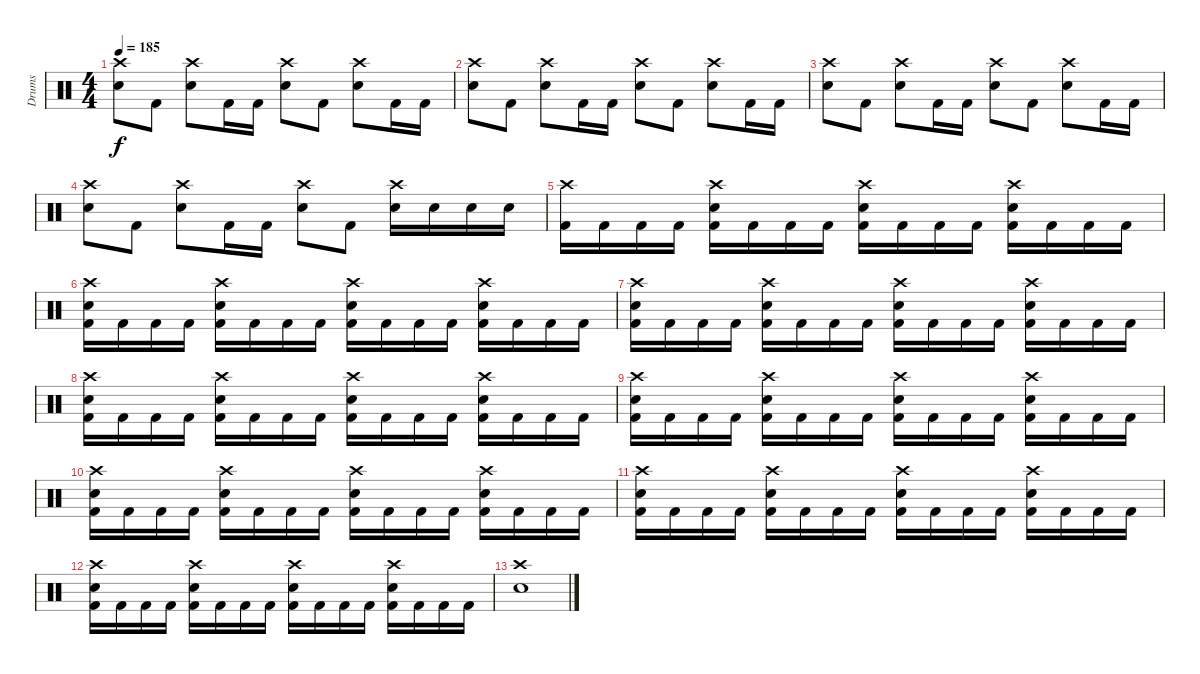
\track ("Drums" "Drums") {instrument percussion}
\staff {score}
\articulation defaults
\ts (4 4)
\tempo 185
\clef neutral
\ks c
("Crash high (hit)" "Snare (hit) 2").8{dy f} "Kick (hit) 2".8 ("Crash high (hit)" "Snare (hit) 2").8 "Kick (hit) 2".16 "Kick (hit) 2".16 ("Crash high (hit)" "Snare (hit) 2").8 "Kick (hit) 2".8 ("Crash high (hit)" "Snare (hit) 2").8 "Kick (hit) 2".16 "Kick (hit) 2".16 |
("Crash high (hit)" "Snare (hit) 2").8 "Kick (hit) 2".8 ("Crash high (hit)" "Snare (hit) 2").8 "Kick (hit) 2".16 "Kick (hit) 2".16 ("Crash high (hit)" "Snare (hit) 2").8 "Kick (hit) 2".8 ("Crash high (hit)" "Snare (hit) 2").8 "Kick (hit) 2".16 "Kick (hit) 2".16 |
("Crash high (hit)" "Snare (hit) 2").8 "Kick (hit) 2".8 ("Crash high (hit)" "Snare (hit) 2").8 "Kick (hit) 2".16 "Kick (hit) 2".16 ("Crash high (hit)" "Snare (hit) 2").8 "Kick (hit) 2".8 ("Crash high (hit)" "Snare (hit) 2").8 "Kick (hit) 2".16 "Kick (hit) 2".16 |
("Crash high (hit)" "Snare (hit) 2").8 "Kick (hit) 2".8 ("Crash high (hit)" "Snare (hit) 2").8 "Kick (hit) 2".16 "Kick (hit) 2".16 ("Crash high (hit)" "Snare (hit) 2").8 "Kick (hit) 2".8 ("Crash high (hit)" "Snare (hit) 2").16 "Snare (hit) 2".16 "Snare (hit) 2".16 "Snare (hit) 2".16 |
("Crash high (hit)" "Kick (hit) 2").16 "Kick (hit) 2".16 "Kick (hit) 2".16 "Kick (hit) 2".16 ("Crash high (hit)" "Snare (hit) 2" "Kick (hit) 2").16 "Kick (hit) 2".16 "Kick (hit) 2".16 "Kick (hit) 2".16 ("Crash high (hit)" "Snare (hit) 2" "Kick (hit) 2").16 "Kick (hit) 2".16 "Kick (hit) 2".16 "Kick (hit) 2".16 ("Crash high (hit)" "Snare (hit) 2" "Kick (hit) 2").16 "Kick (hit) 2".16 "Kick (hit) 2".16 "Kick (hit) 2".16 |
("Crash high (hit)" "Snare (hit) 2" "Kick (hit) 2").16 "Kick (hit) 2".16 "Kick (hit) 2".16 "Kick (hit) 2".16 ("Crash high (hit)" "Snare (hit) 2" "Kick (hit) 2").16 "Kick (hit) 2".16 "Kick (hit) 2".16 "Kick (hit) 2".16 ("Crash high (hit)" "Snare (hit) 2" "Kick (hit) 2").16 "Kick (hit) 2".16 "Kick (hit) 2".16 "Kick (hit) 2".16 ("Crash high (hit)" "Snare (hit) 2" "Kick (hit) 2").16 "Kick (hit) 2".16 "Kick (hit) 2".16 "Kick (hit) 2".16 |
("Crash high (hit)" "Snare (hit) 2" "Kick (hit) 2").16 "Kick (hit) 2".16 "Kick (hit) 2".16 "Kick (hit) 2".16 ("Crash high (hit)" "Snare (hit) 2" "Kick (hit) 2").16 "Kick (hit) 2".16 "Kick (hit) 2".16 "Kick (hit) 2".16 ("Crash high (hit)" "Snare (hit) 2" "Kick (hit) 2").16 "Kick (hit) 2".16 "Kick (hit) 2".16 "Kick (hit) 2".16 ("Crash high (hit)" "Snare (hit) 2" "Kick (hit) 2").16 "Kick (hit) 2".16 "Kick (hit) 2".16 "Kick (hit) 2".16 |
("Crash high (hit)" "Snare (hit) 2" "Kick (hit) 2").16 "Kick (hit) 2".16 "Kick (hit) 2".16 "Kick (hit) 2".16 ("Crash high (hit)" "Snare (hit) 2" "Kick (hit) 2").16 "Kick (hit) 2".16 "Kick (hit) 2".16 "Kick (hit) 2".16 ("Crash high (hit)" "Snare (hit) 2" "Kick (hit) 2").16 "Kick (hit) 2".16 "Kick (hit) 2".16 "Kick (hit) 2".16 ("Crash high (hit)" "Snare (hit) 2" "Kick (hit) 2").16 "Kick (hit) 2".16 "Kick (hit) 2".16 "Kick (hit) 2".16 |
("Crash high (hit)" "Snare (hit) 2" "Kick (hit) 2").16 "Kick (hit) 2".16 "Kick (hit) 2".16 "Kick (hit) 2".16 ("Crash high (hit)" "Snare (hit) 2" "Kick (hit) 2").16 "Kick (hit) 2".16 "Kick (hit) 2".16 "Kick (hit) 2".16 ("Crash high (hit)" "Snare (hit) 2" "Kick (hit) 2").16 "Kick (hit) 2".16 "Kick (hit) 2".16 "Kick (hit) 2".16 ("Crash high (hit)" "Snare (hit) 2" "Kick (hit) 2").16 "Kick (hit) 2".16 "Kick (hit) 2".16 "Kick (hit) 2".16 |
("Crash high (hit)" "Snare (hit) 2" "Kick (hit) 2").16 "Kick (hit) 2".16 "Kick (hit) 2".16 "Kick (hit) 2".16 ("Crash high (hit)" "Snare (hit) 2" "Kick (hit) 2").16 "Kick (hit) 2".16 "Kick (hit) 2".16 "Kick (hit) 2".16 ("Crash high (hit)" "Snare (hit) 2" "Kick (hit) 2").16 "Kick (hit) 2".16 "Kick (hit) 2".16 "Kick (hit) 2".16 ("Crash high (hit)" "Snare (hit) 2" "Kick (hit) 2").16 "Kick (hit) 2".16 "Kick (hit) 2".16 "Kick (hit) 2".16 |
("Crash high (hit)" "Snare (hit) 2" "Kick (hit) 2").16 "Kick (hit) 2".16 "Kick (hit) 2".16 "Kick (hit) 2".16 ("Crash high (hit)" "Snare (hit) 2" "Kick (hit) 2").16 "Kick (hit) 2".16 "Kick (hit) 2".16 "Kick (hit) 2".16 ("Crash high (hit)" "Snare (hit) 2" "Kick (hit) 2").16 "Kick (hit) 2".16 "Kick (hit) 2".16 "Kick (hit) 2".16 ("Crash high (hit)" "Snare (hit) 2" "Kick (hit) 2").16 "Kick (hit) 2".16 "Kick (hit) 2".16 "Kick (hit) 2".16 |
("Crash high (hit)" "Snare (hit) 2" "Kick (hit) 2").16 "Kick (hit) 2".16 "Kick (hit) 2".16 "Kick (hit) 2".16 ("Crash high (hit)" "Snare (hit) 2" "Kick (hit) 2").16 "Kick (hit) 2".16 "Kick (hit) 2".16 "Kick (hit) 2".16 ("Crash high (hit)" "Snare (hit) 2" "Kick (hit) 2").16 "Kick (hit) 2".16 "Kick (hit) 2".16 "Kick (hit) 2".16 ("Crash high (hit)" "Snare (hit) 2" "Kick (hit) 2").16 "Kick (hit) 2".16 "Kick (hit) 2".16 "Kick (hit) 2".16 |
("Crash high (hit)" "Snare (hit) 2").1
